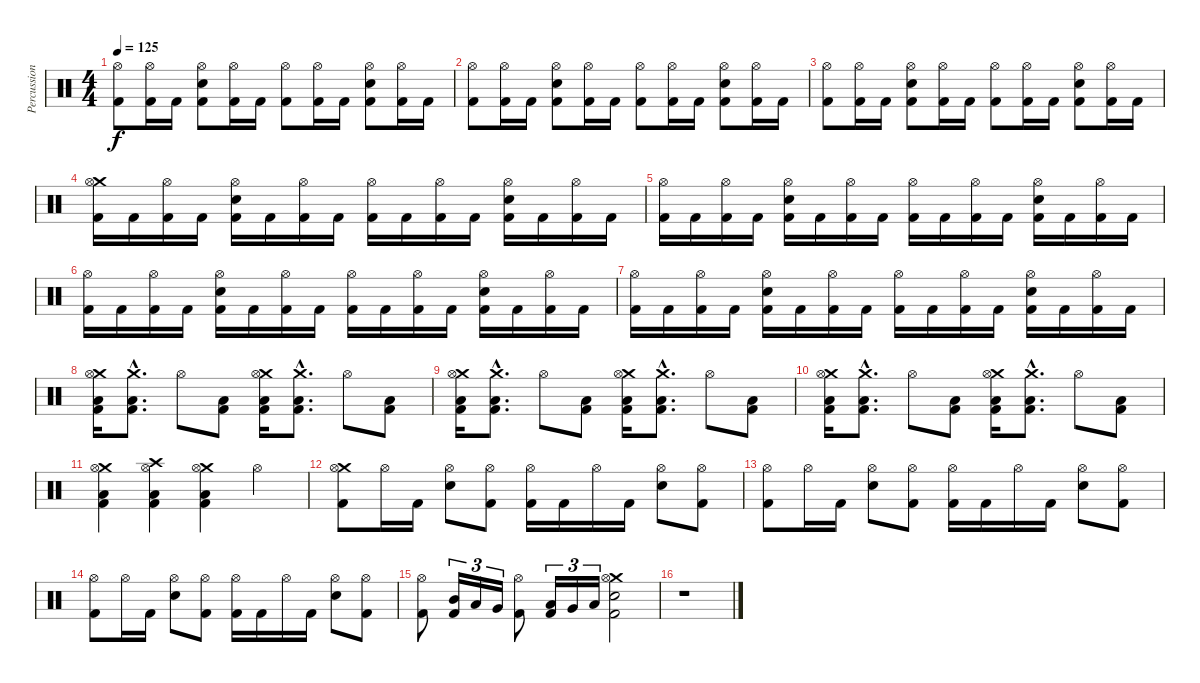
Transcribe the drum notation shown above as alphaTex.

\track ("Percussion" "Percussion") {instrument percussion}
\staff {score}
\articulation defaults
\ts (4 4)
\tempo 125
\clef neutral
\ks c
("Hi-Hat (open)" "Kick (hit) 2").8{dy f} ("Hi-Hat (open)" "Kick (hit) 2").16 "Kick (hit) 2".16 ("Hi-Hat (open)" "Electric Snare (hit)" "Kick (hit) 2").8 ("Hi-Hat (open)" "Kick (hit) 2").16 "Kick (hit) 2".16 ("Hi-Hat (open)" "Kick (hit) 2").8 ("Hi-Hat (open)" "Kick (hit) 2").16 "Kick (hit) 2".16 ("Hi-Hat (open)" "Electric Snare (hit)" "Kick (hit) 2").8 ("Hi-Hat (open)" "Kick (hit) 2").16 "Kick (hit) 2".16 |
("Hi-Hat (open)" "Kick (hit) 2").8 ("Hi-Hat (open)" "Kick (hit) 2").16 "Kick (hit) 2".16 ("Hi-Hat (open)" "Electric Snare (hit)" "Kick (hit) 2").8 ("Hi-Hat (open)" "Kick (hit) 2").16 "Kick (hit) 2".16 ("Hi-Hat (open)" "Kick (hit) 2").8 ("Hi-Hat (open)" "Kick (hit) 2").16 "Kick (hit) 2".16 ("Hi-Hat (open)" "Electric Snare (hit)" "Kick (hit) 2").8 ("Hi-Hat (open)" "Kick (hit) 2").16 "Kick (hit) 2".16 |
("Hi-Hat (open)" "Kick (hit) 2").8 ("Hi-Hat (open)" "Kick (hit) 2").16 "Kick (hit) 2".16 ("Hi-Hat (open)" "Electric Snare (hit)" "Kick (hit) 2").8 ("Hi-Hat (open)" "Kick (hit) 2").16 "Kick (hit) 2".16 ("Hi-Hat (open)" "Kick (hit) 2").8 ("Hi-Hat (open)" "Kick (hit) 2").16 "Kick (hit) 2".16 ("Hi-Hat (open)" "Electric Snare (hit)" "Kick (hit) 2").8 ("Hi-Hat (open)" "Kick (hit) 2").16 "Kick (hit) 2".16 |
("Crash medium (hit)" "Hi-Hat (open)" "Kick (hit) 2").16 "Kick (hit) 2".16 ("Hi-Hat (open)" "Kick (hit) 2").16 "Kick (hit) 2".16 ("Hi-Hat (open)" "Electric Snare (hit)" "Kick (hit) 2").16 "Kick (hit) 2".16 ("Hi-Hat (open)" "Kick (hit) 2").16 "Kick (hit) 2".16 ("Hi-Hat (open)" "Kick (hit) 2").16 "Kick (hit) 2".16 ("Hi-Hat (open)" "Kick (hit) 2").16 "Kick (hit) 2".16 ("Hi-Hat (open)" "Electric Snare (hit)" "Kick (hit) 2").16 "Kick (hit) 2".16 ("Hi-Hat (open)" "Kick (hit) 2").16 "Kick (hit) 2".16 |
("Hi-Hat (open)" "Kick (hit) 2").16 "Kick (hit) 2".16 ("Hi-Hat (open)" "Kick (hit) 2").16 "Kick (hit) 2".16 ("Hi-Hat (open)" "Electric Snare (hit)" "Kick (hit) 2").16 "Kick (hit) 2".16 ("Hi-Hat (open)" "Kick (hit) 2").16 "Kick (hit) 2".16 ("Hi-Hat (open)" "Kick (hit) 2").16 "Kick (hit) 2".16 ("Hi-Hat (open)" "Kick (hit) 2").16 "Kick (hit) 2".16 ("Hi-Hat (open)" "Electric Snare (hit)" "Kick (hit) 2").16 "Kick (hit) 2".16 ("Hi-Hat (open)" "Kick (hit) 2").16 "Kick (hit) 2".16 |
("Hi-Hat (open)" "Kick (hit) 2").16 "Kick (hit) 2".16 ("Hi-Hat (open)" "Kick (hit) 2").16 "Kick (hit) 2".16 ("Hi-Hat (open)" "Electric Snare (hit)" "Kick (hit) 2").16 "Kick (hit) 2".16 ("Hi-Hat (open)" "Kick (hit) 2").16 "Kick (hit) 2".16 ("Hi-Hat (open)" "Kick (hit) 2").16 "Kick (hit) 2".16 ("Hi-Hat (open)" "Kick (hit) 2").16 "Kick (hit) 2".16 ("Hi-Hat (open)" "Electric Snare (hit)" "Kick (hit) 2").16 "Kick (hit) 2".16 ("Hi-Hat (open)" "Kick (hit) 2").16 "Kick (hit) 2".16 |
("Hi-Hat (open)" "Kick (hit) 2").16 "Kick (hit) 2".16 ("Hi-Hat (open)" "Kick (hit) 2").16 "Kick (hit) 2".16 ("Hi-Hat (open)" "Electric Snare (hit)" "Kick (hit) 2").16 "Kick (hit) 2".16 ("Hi-Hat (open)" "Kick (hit) 2").16 "Kick (hit) 2".16 ("Hi-Hat (open)" "Kick (hit) 2").16 "Kick (hit) 2".16 ("Hi-Hat (open)" "Kick (hit) 2").16 "Kick (hit) 2".16 ("Hi-Hat (open)" "Electric Snare (hit)" "Kick (hit) 2").16 "Kick (hit) 2".16 ("Hi-Hat (open)" "Kick (hit) 2").16 "Kick (hit) 2".16 |
("Crash medium (hit)" "Hi-Hat (open)" "Low Floor Tom (hit)" "Kick (hit) 2").16 ("Crash medium (hit)" "Low Floor Tom (hit)"{hac} "Kick (hit) 2"{hac}).8{d} "Hi-Hat (open)".8 ("Low Floor Tom (hit)" "Kick (hit) 2").8 ("Crash medium (hit)" "Hi-Hat (open)" "Low Floor Tom (hit)" "Kick (hit) 2").16 ("Crash medium (hit)" "Low Floor Tom (hit)"{hac} "Kick (hit) 2"{hac}).8{d} "Hi-Hat (open)".8 ("Low Floor Tom (hit)" "Kick (hit) 2").8 |
("Crash medium (hit)" "Hi-Hat (open)" "Low Floor Tom (hit)" "Kick (hit) 2").16 ("Crash medium (hit)" "Low Floor Tom (hit)"{hac} "Kick (hit) 2"{hac}).8{d} "Hi-Hat (open)".8 ("Low Floor Tom (hit)" "Kick (hit) 2").8 ("Crash medium (hit)" "Hi-Hat (open)" "Low Floor Tom (hit)" "Kick (hit) 2").16 ("Crash medium (hit)" "Low Floor Tom (hit)"{hac} "Kick (hit) 2"{hac}).8{d} "Hi-Hat (open)".8 ("Low Floor Tom (hit)" "Kick (hit) 2").8 |
("Crash medium (hit)" "Hi-Hat (open)" "Low Floor Tom (hit)" "Kick (hit) 2").16 ("Crash medium (hit)" "Low Floor Tom (hit)"{hac} "Kick (hit) 2"{hac}).8{d} "Hi-Hat (open)".8 ("Low Floor Tom (hit)" "Kick (hit) 2").8 ("Crash medium (hit)" "Hi-Hat (open)" "Low Floor Tom (hit)" "Kick (hit) 2").16 ("Crash medium (hit)" "Low Floor Tom (hit)"{hac} "Kick (hit) 2"{hac}).8{d} "Hi-Hat (open)".8 ("Low Floor Tom (hit)" "Kick (hit) 2").8 |
("Crash medium (hit)" "Hi-Hat (open)" "Low Floor Tom (hit)" "Kick (hit) 2").4 ("Crash high (hit)" "Hi-Hat (open)" "Low Floor Tom (hit)" "Kick (hit) 2").4 ("Crash medium (hit)" "Hi-Hat (open)" "Low Floor Tom (hit)" "Kick (hit) 2").4 "Hi-Hat (open)".4 |
("Crash medium (hit)" "Hi-Hat (open)" "Kick (hit) 2").8 "Hi-Hat (open)".16 "Kick (hit) 2".16 ("Hi-Hat (open)" "Electric Snare (hit)").8 ("Hi-Hat (open)" "Kick (hit) 2").8 ("Hi-Hat (open)" "Kick (hit) 2").16 "Kick (hit) 2".16 "Hi-Hat (open)".16 "Kick (hit) 2".16 ("Hi-Hat (open)" "Electric Snare (hit)").8 ("Hi-Hat (open)" "Kick (hit) 2").8 |
("Hi-Hat (open)" "Kick (hit) 2").8 "Hi-Hat (open)".16 "Kick (hit) 2".16 ("Hi-Hat (open)" "Electric Snare (hit)").8 ("Hi-Hat (open)" "Kick (hit) 2").8 ("Hi-Hat (open)" "Kick (hit) 2").16 "Kick (hit) 2".16 "Hi-Hat (open)".16 "Kick (hit) 2".16 ("Hi-Hat (open)" "Electric Snare (hit)").8 ("Hi-Hat (open)" "Kick (hit) 2").8 |
("Hi-Hat (open)" "Kick (hit) 2").8 "Hi-Hat (open)".16 "Kick (hit) 2".16 ("Hi-Hat (open)" "Electric Snare (hit)").8 ("Hi-Hat (open)" "Kick (hit) 2").8 ("Hi-Hat (open)" "Kick (hit) 2").16 "Kick (hit) 2".16 "Hi-Hat (open)".16 "Kick (hit) 2".16 ("Hi-Hat (open)" "Electric Snare (hit)").8 ("Hi-Hat (open)" "Kick (hit) 2").8 |
("Hi-Hat (open)" "Kick (hit) 2").8 ("Mid Tom (hit)" "Kick (hit) 2").16{tu (3 2)} "Low Tom (hit)".16{tu (3 2)} "Very Low Tom (hit)".16{tu (3 2)} ("Hi-Hat (open)" "Kick (hit) 2").8 ("Low Tom (hit)" "Kick (hit) 2").16{tu (3 2)} "Very Low Tom (hit)".16{tu (3 2)} "Low Floor Tom (hit)".16{tu (3 2)} ("Crash medium (hit)" "Hi-Hat (open)" "Electric Snare (hit)" "Kick (hit) 2").2 |
r.1
